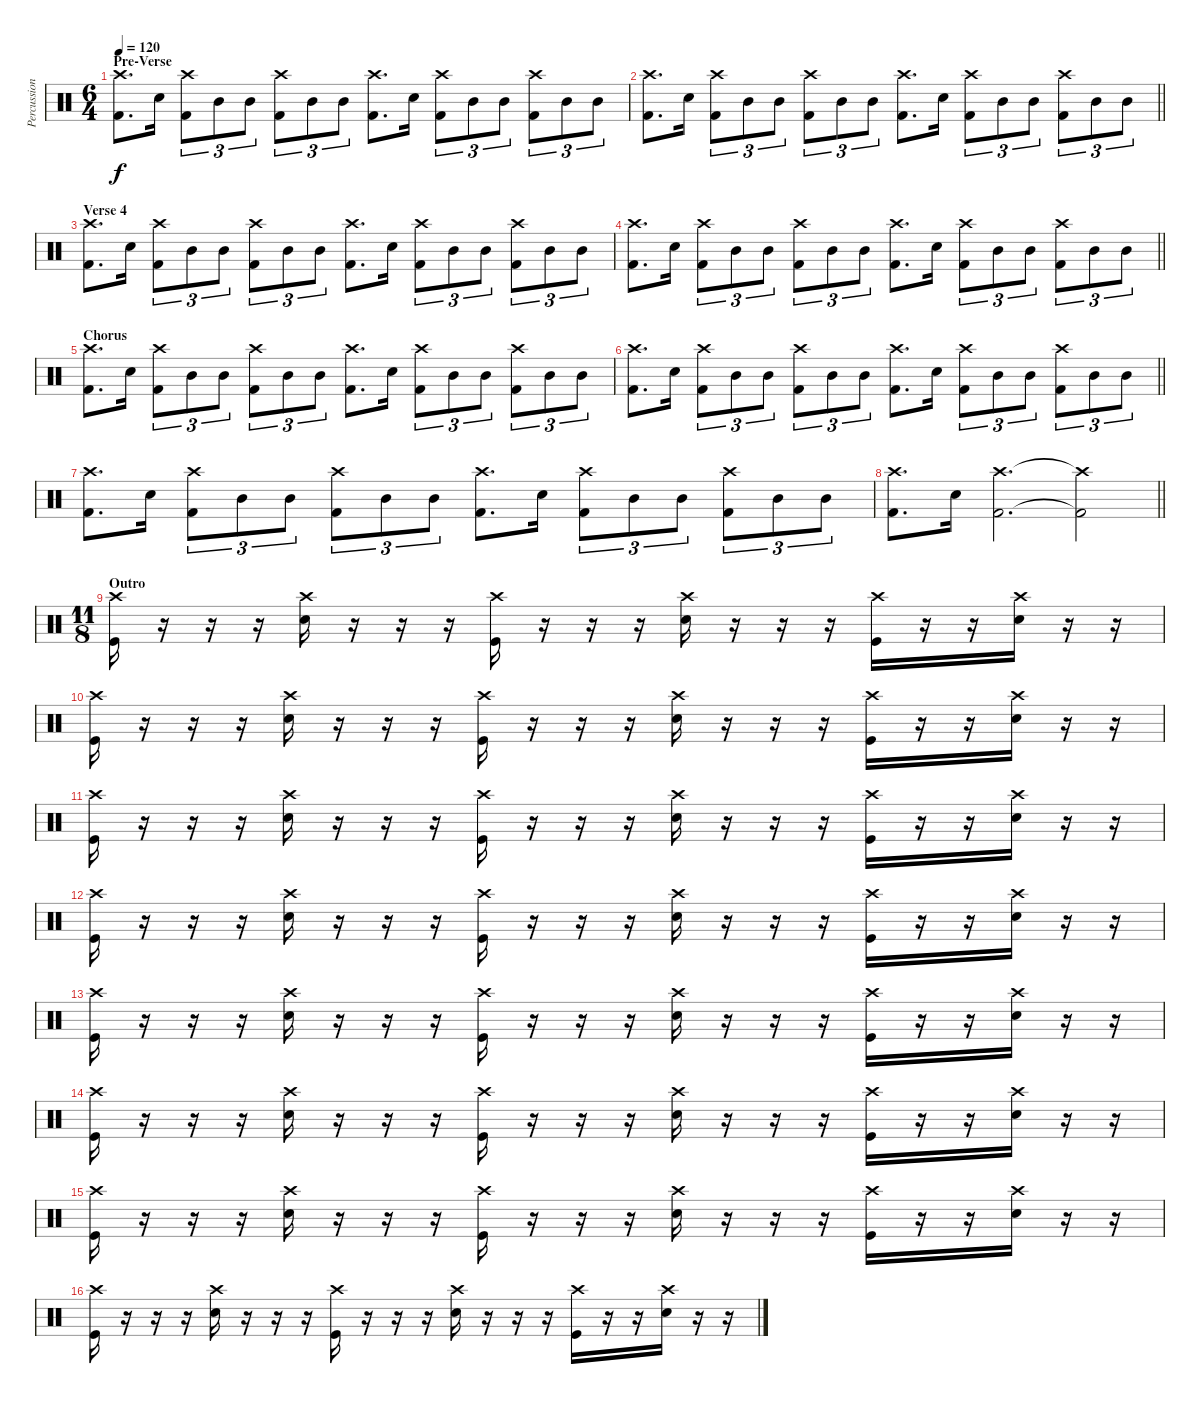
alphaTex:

\track ("Percussion" "Percussion") {instrument percussion}
\staff {score}
\articulation defaults
\ts (6 4)
\section ("" "Pre-Verse")
\tempo 120
\clef neutral
\ks c
("Crash high (hit)" "Kick (hit) 2").8{d dy f} "Snare (hit) 2".16 ("Crash high (hit)" "Kick (hit) 2").8{tu (3 2)} "Mid Tom (hit)".8{tu (3 2)} "Mid Tom (hit)".8{tu (3 2)} ("Crash high (hit)" "Kick (hit) 2").8{tu (3 2)} "Mid Tom (hit)".8{tu (3 2)} "Mid Tom (hit)".8{tu (3 2)} ("Crash high (hit)" "Kick (hit) 2").8{d} "Snare (hit) 2".16 ("Crash high (hit)" "Kick (hit) 2").8{tu (3 2)} "Mid Tom (hit)".8{tu (3 2)} "Mid Tom (hit)".8{tu (3 2)} ("Crash high (hit)" "Kick (hit) 2").8{tu (3 2)} "Mid Tom (hit)".8{tu (3 2)} "Mid Tom (hit)".8{tu (3 2)} |
\barLineRight lightlight
("Crash high (hit)" "Kick (hit) 2").8{d} "Snare (hit) 2".16 ("Crash high (hit)" "Kick (hit) 2").8{tu (3 2)} "Mid Tom (hit)".8{tu (3 2)} "Mid Tom (hit)".8{tu (3 2)} ("Crash high (hit)" "Kick (hit) 2").8{tu (3 2)} "Mid Tom (hit)".8{tu (3 2)} "Mid Tom (hit)".8{tu (3 2)} ("Crash high (hit)" "Kick (hit) 2").8{d} "Snare (hit) 2".16 ("Crash high (hit)" "Kick (hit) 2").8{tu (3 2)} "Mid Tom (hit)".8{tu (3 2)} "Mid Tom (hit)".8{tu (3 2)} ("Crash high (hit)" "Kick (hit) 2").8{tu (3 2)} "Mid Tom (hit)".8{tu (3 2)} "Mid Tom (hit)".8{tu (3 2)} |
\section ("" "Verse 4")
("Crash high (hit)" "Kick (hit) 2").8{d} "Snare (hit) 2".16 ("Crash high (hit)" "Kick (hit) 2").8{tu (3 2)} "Mid Tom (hit)".8{tu (3 2)} "Mid Tom (hit)".8{tu (3 2)} ("Crash high (hit)" "Kick (hit) 2").8{tu (3 2)} "Mid Tom (hit)".8{tu (3 2)} "Mid Tom (hit)".8{tu (3 2)} ("Crash high (hit)" "Kick (hit) 2").8{d} "Snare (hit) 2".16 ("Crash high (hit)" "Kick (hit) 2").8{tu (3 2)} "Mid Tom (hit)".8{tu (3 2)} "Mid Tom (hit)".8{tu (3 2)} ("Crash high (hit)" "Kick (hit) 2").8{tu (3 2)} "Mid Tom (hit)".8{tu (3 2)} "Mid Tom (hit)".8{tu (3 2)} |
\barLineRight lightlight
("Crash high (hit)" "Kick (hit) 2").8{d} "Snare (hit) 2".16 ("Crash high (hit)" "Kick (hit) 2").8{tu (3 2)} "Mid Tom (hit)".8{tu (3 2)} "Mid Tom (hit)".8{tu (3 2)} ("Crash high (hit)" "Kick (hit) 2").8{tu (3 2)} "Mid Tom (hit)".8{tu (3 2)} "Mid Tom (hit)".8{tu (3 2)} ("Crash high (hit)" "Kick (hit) 2").8{d} "Snare (hit) 2".16 ("Crash high (hit)" "Kick (hit) 2").8{tu (3 2)} "Mid Tom (hit)".8{tu (3 2)} "Mid Tom (hit)".8{tu (3 2)} ("Crash high (hit)" "Kick (hit) 2").8{tu (3 2)} "Mid Tom (hit)".8{tu (3 2)} "Mid Tom (hit)".8{tu (3 2)} |
\section ("" "Chorus")
("Crash high (hit)" "Kick (hit) 2").8{d} "Snare (hit) 2".16 ("Crash high (hit)" "Kick (hit) 2").8{tu (3 2)} "Mid Tom (hit)".8{tu (3 2)} "Mid Tom (hit)".8{tu (3 2)} ("Crash high (hit)" "Kick (hit) 2").8{tu (3 2)} "Mid Tom (hit)".8{tu (3 2)} "Mid Tom (hit)".8{tu (3 2)} ("Crash high (hit)" "Kick (hit) 2").8{d} "Snare (hit) 2".16 ("Crash high (hit)" "Kick (hit) 2").8{tu (3 2)} "Mid Tom (hit)".8{tu (3 2)} "Mid Tom (hit)".8{tu (3 2)} ("Crash high (hit)" "Kick (hit) 2").8{tu (3 2)} "Mid Tom (hit)".8{tu (3 2)} "Mid Tom (hit)".8{tu (3 2)} |
\barLineRight lightlight
("Crash high (hit)" "Kick (hit) 2").8{d} "Snare (hit) 2".16 ("Crash high (hit)" "Kick (hit) 2").8{tu (3 2)} "Mid Tom (hit)".8{tu (3 2)} "Mid Tom (hit)".8{tu (3 2)} ("Crash high (hit)" "Kick (hit) 2").8{tu (3 2)} "Mid Tom (hit)".8{tu (3 2)} "Mid Tom (hit)".8{tu (3 2)} ("Crash high (hit)" "Kick (hit) 2").8{d} "Snare (hit) 2".16 ("Crash high (hit)" "Kick (hit) 2").8{tu (3 2)} "Mid Tom (hit)".8{tu (3 2)} "Mid Tom (hit)".8{tu (3 2)} ("Crash high (hit)" "Kick (hit) 2").8{tu (3 2)} "Mid Tom (hit)".8{tu (3 2)} "Mid Tom (hit)".8{tu (3 2)} |
("Crash high (hit)" "Kick (hit) 2").8{d} "Snare (hit) 2".16 ("Crash high (hit)" "Kick (hit) 2").8{tu (3 2)} "Mid Tom (hit)".8{tu (3 2)} "Mid Tom (hit)".8{tu (3 2)} ("Crash high (hit)" "Kick (hit) 2").8{tu (3 2)} "Mid Tom (hit)".8{tu (3 2)} "Mid Tom (hit)".8{tu (3 2)} ("Crash high (hit)" "Kick (hit) 2").8{d} "Snare (hit) 2".16 ("Crash high (hit)" "Kick (hit) 2").8{tu (3 2)} "Mid Tom (hit)".8{tu (3 2)} "Mid Tom (hit)".8{tu (3 2)} ("Crash high (hit)" "Kick (hit) 2").8{tu (3 2)} "Mid Tom (hit)".8{tu (3 2)} "Mid Tom (hit)".8{tu (3 2)} |
\barLineRight lightlight
("Crash high (hit)" "Kick (hit) 2").8{d} "Snare (hit) 2".16 ("Crash high (hit)" "Kick (hit) 2").2{d} ("Crash high (hit)"{t} "Kick (hit) 2"{t}).2 |
\ts (11 8)
\section ("" "Outro")
("Crash high (hit)" "Kick (hit)").16 r.16 r.16 r.16 ("Crash high (hit)" "Snare (hit) 2").16 r.16 r.16 r.16 ("Crash high (hit)" "Kick (hit)").16 r.16 r.16 r.16 ("Crash high (hit)" "Snare (hit) 2").16 r.16 r.16 r.16 ("Crash high (hit)" "Kick (hit)").16 r.16 r.16 ("Crash high (hit)" "Snare (hit) 2").16 r.16 r.16 |
("Crash high (hit)" "Kick (hit)").16 r.16 r.16 r.16 ("Crash high (hit)" "Snare (hit) 2").16 r.16 r.16 r.16 ("Crash high (hit)" "Kick (hit)").16 r.16 r.16 r.16 ("Crash high (hit)" "Snare (hit) 2").16 r.16 r.16 r.16 ("Crash high (hit)" "Kick (hit)").16 r.16 r.16 ("Crash high (hit)" "Snare (hit) 2").16 r.16 r.16 |
("Crash high (hit)" "Kick (hit)").16 r.16 r.16 r.16 ("Crash high (hit)" "Snare (hit) 2").16 r.16 r.16 r.16 ("Crash high (hit)" "Kick (hit)").16 r.16 r.16 r.16 ("Crash high (hit)" "Snare (hit) 2").16 r.16 r.16 r.16 ("Crash high (hit)" "Kick (hit)").16 r.16 r.16 ("Crash high (hit)" "Snare (hit) 2").16 r.16 r.16 |
("Crash high (hit)" "Kick (hit)").16 r.16 r.16 r.16 ("Crash high (hit)" "Snare (hit) 2").16 r.16 r.16 r.16 ("Crash high (hit)" "Kick (hit)").16 r.16 r.16 r.16 ("Crash high (hit)" "Snare (hit) 2").16 r.16 r.16 r.16 ("Crash high (hit)" "Kick (hit)").16 r.16 r.16 ("Crash high (hit)" "Snare (hit) 2").16 r.16 r.16 |
("Crash high (hit)" "Kick (hit)").16 r.16 r.16 r.16 ("Crash high (hit)" "Snare (hit) 2").16 r.16 r.16 r.16 ("Crash high (hit)" "Kick (hit)").16 r.16 r.16 r.16 ("Crash high (hit)" "Snare (hit) 2").16 r.16 r.16 r.16 ("Crash high (hit)" "Kick (hit)").16 r.16 r.16 ("Crash high (hit)" "Snare (hit) 2").16 r.16 r.16 |
("Crash high (hit)" "Kick (hit)").16 r.16 r.16 r.16 ("Crash high (hit)" "Snare (hit) 2").16 r.16 r.16 r.16 ("Crash high (hit)" "Kick (hit)").16 r.16 r.16 r.16 ("Crash high (hit)" "Snare (hit) 2").16 r.16 r.16 r.16 ("Crash high (hit)" "Kick (hit)").16 r.16 r.16 ("Crash high (hit)" "Snare (hit) 2").16 r.16 r.16 |
("Crash high (hit)" "Kick (hit)").16 r.16 r.16 r.16 ("Crash high (hit)" "Snare (hit) 2").16 r.16 r.16 r.16 ("Crash high (hit)" "Kick (hit)").16 r.16 r.16 r.16 ("Crash high (hit)" "Snare (hit) 2").16 r.16 r.16 r.16 ("Crash high (hit)" "Kick (hit)").16 r.16 r.16 ("Crash high (hit)" "Snare (hit) 2").16 r.16 r.16 |
("Crash high (hit)" "Kick (hit)").16 r.16 r.16 r.16 ("Crash high (hit)" "Snare (hit) 2").16 r.16 r.16 r.16 ("Crash high (hit)" "Kick (hit)").16 r.16 r.16 r.16 ("Crash high (hit)" "Snare (hit) 2").16 r.16 r.16 r.16 ("Crash high (hit)" "Kick (hit)").16 r.16 r.16 ("Crash high (hit)" "Snare (hit) 2").16 r.16 r.16
